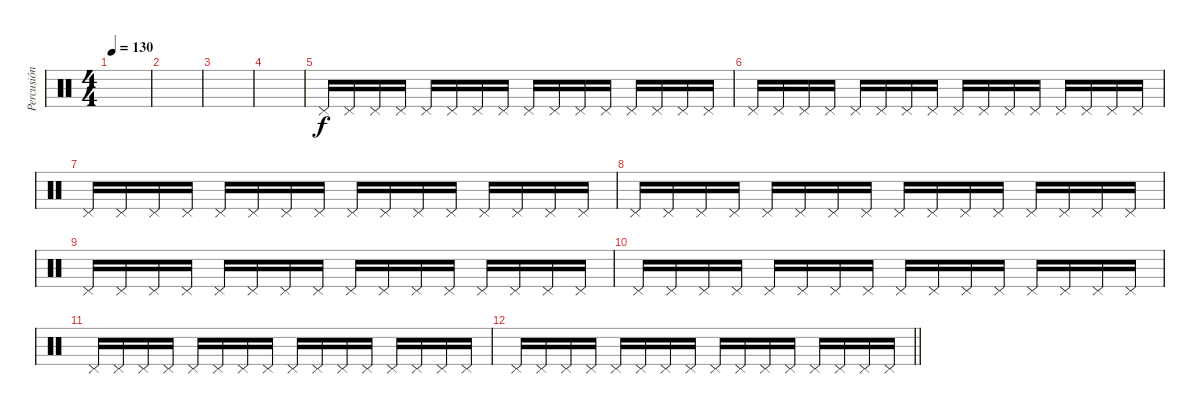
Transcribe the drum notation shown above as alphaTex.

\track ("Percusión" "Percusión") {instrument percussion}
\staff {score}
\articulation defaults
\ts (4 4)
\tempo 130
\clef neutral
\ks c
|
|
|
|
"Pedal Hi-Hat (hit)".16 "Pedal Hi-Hat (hit)".16 "Pedal Hi-Hat (hit)".16 "Pedal Hi-Hat (hit)".16 "Pedal Hi-Hat (hit)".16 "Pedal Hi-Hat (hit)".16 "Pedal Hi-Hat (hit)".16 "Pedal Hi-Hat (hit)".16 "Pedal Hi-Hat (hit)".16 "Pedal Hi-Hat (hit)".16 "Pedal Hi-Hat (hit)".16 "Pedal Hi-Hat (hit)".16 "Pedal Hi-Hat (hit)".16 "Pedal Hi-Hat (hit)".16 "Pedal Hi-Hat (hit)".16 "Pedal Hi-Hat (hit)".16 |
"Pedal Hi-Hat (hit)".16 "Pedal Hi-Hat (hit)".16 "Pedal Hi-Hat (hit)".16 "Pedal Hi-Hat (hit)".16 "Pedal Hi-Hat (hit)".16 "Pedal Hi-Hat (hit)".16 "Pedal Hi-Hat (hit)".16 "Pedal Hi-Hat (hit)".16 "Pedal Hi-Hat (hit)".16 "Pedal Hi-Hat (hit)".16 "Pedal Hi-Hat (hit)".16 "Pedal Hi-Hat (hit)".16 "Pedal Hi-Hat (hit)".16 "Pedal Hi-Hat (hit)".16 "Pedal Hi-Hat (hit)".16 "Pedal Hi-Hat (hit)".16 |
"Pedal Hi-Hat (hit)".16 "Pedal Hi-Hat (hit)".16 "Pedal Hi-Hat (hit)".16 "Pedal Hi-Hat (hit)".16 "Pedal Hi-Hat (hit)".16 "Pedal Hi-Hat (hit)".16 "Pedal Hi-Hat (hit)".16 "Pedal Hi-Hat (hit)".16 "Pedal Hi-Hat (hit)".16 "Pedal Hi-Hat (hit)".16 "Pedal Hi-Hat (hit)".16 "Pedal Hi-Hat (hit)".16 "Pedal Hi-Hat (hit)".16 "Pedal Hi-Hat (hit)".16 "Pedal Hi-Hat (hit)".16 "Pedal Hi-Hat (hit)".16 |
"Pedal Hi-Hat (hit)".16 "Pedal Hi-Hat (hit)".16 "Pedal Hi-Hat (hit)".16 "Pedal Hi-Hat (hit)".16 "Pedal Hi-Hat (hit)".16 "Pedal Hi-Hat (hit)".16 "Pedal Hi-Hat (hit)".16 "Pedal Hi-Hat (hit)".16 "Pedal Hi-Hat (hit)".16 "Pedal Hi-Hat (hit)".16 "Pedal Hi-Hat (hit)".16 "Pedal Hi-Hat (hit)".16 "Pedal Hi-Hat (hit)".16 "Pedal Hi-Hat (hit)".16 "Pedal Hi-Hat (hit)".16 "Pedal Hi-Hat (hit)".16 |
"Pedal Hi-Hat (hit)".16 "Pedal Hi-Hat (hit)".16 "Pedal Hi-Hat (hit)".16 "Pedal Hi-Hat (hit)".16 "Pedal Hi-Hat (hit)".16 "Pedal Hi-Hat (hit)".16 "Pedal Hi-Hat (hit)".16 "Pedal Hi-Hat (hit)".16 "Pedal Hi-Hat (hit)".16 "Pedal Hi-Hat (hit)".16 "Pedal Hi-Hat (hit)".16 "Pedal Hi-Hat (hit)".16 "Pedal Hi-Hat (hit)".16 "Pedal Hi-Hat (hit)".16 "Pedal Hi-Hat (hit)".16 "Pedal Hi-Hat (hit)".16 |
"Pedal Hi-Hat (hit)".16 "Pedal Hi-Hat (hit)".16 "Pedal Hi-Hat (hit)".16 "Pedal Hi-Hat (hit)".16 "Pedal Hi-Hat (hit)".16 "Pedal Hi-Hat (hit)".16 "Pedal Hi-Hat (hit)".16 "Pedal Hi-Hat (hit)".16 "Pedal Hi-Hat (hit)".16 "Pedal Hi-Hat (hit)".16 "Pedal Hi-Hat (hit)".16 "Pedal Hi-Hat (hit)".16 "Pedal Hi-Hat (hit)".16 "Pedal Hi-Hat (hit)".16 "Pedal Hi-Hat (hit)".16 "Pedal Hi-Hat (hit)".16 |
"Pedal Hi-Hat (hit)".16 "Pedal Hi-Hat (hit)".16 "Pedal Hi-Hat (hit)".16 "Pedal Hi-Hat (hit)".16 "Pedal Hi-Hat (hit)".16 "Pedal Hi-Hat (hit)".16 "Pedal Hi-Hat (hit)".16 "Pedal Hi-Hat (hit)".16 "Pedal Hi-Hat (hit)".16 "Pedal Hi-Hat (hit)".16 "Pedal Hi-Hat (hit)".16 "Pedal Hi-Hat (hit)".16 "Pedal Hi-Hat (hit)".16 "Pedal Hi-Hat (hit)".16 "Pedal Hi-Hat (hit)".16 "Pedal Hi-Hat (hit)".16 |
\barLineRight lightlight "Pedal Hi-Hat (hit)".16 "Pedal Hi-Hat (hit)".16 "Pedal Hi-Hat (hit)".16 "Pedal Hi-Hat (hit)".16 "Pedal Hi-Hat (hit)".16 "Pedal Hi-Hat (hit)".16 "Pedal Hi-Hat (hit)".16 "Pedal Hi-Hat (hit)".16 "Pedal Hi-Hat (hit)".16 "Pedal Hi-Hat (hit)".16 "Pedal Hi-Hat (hit)".16 "Pedal Hi-Hat (hit)".16 "Pedal Hi-Hat (hit)".16 "Pedal Hi-Hat (hit)".16 "Pedal Hi-Hat (hit)".16 "Pedal Hi-Hat (hit)".16
